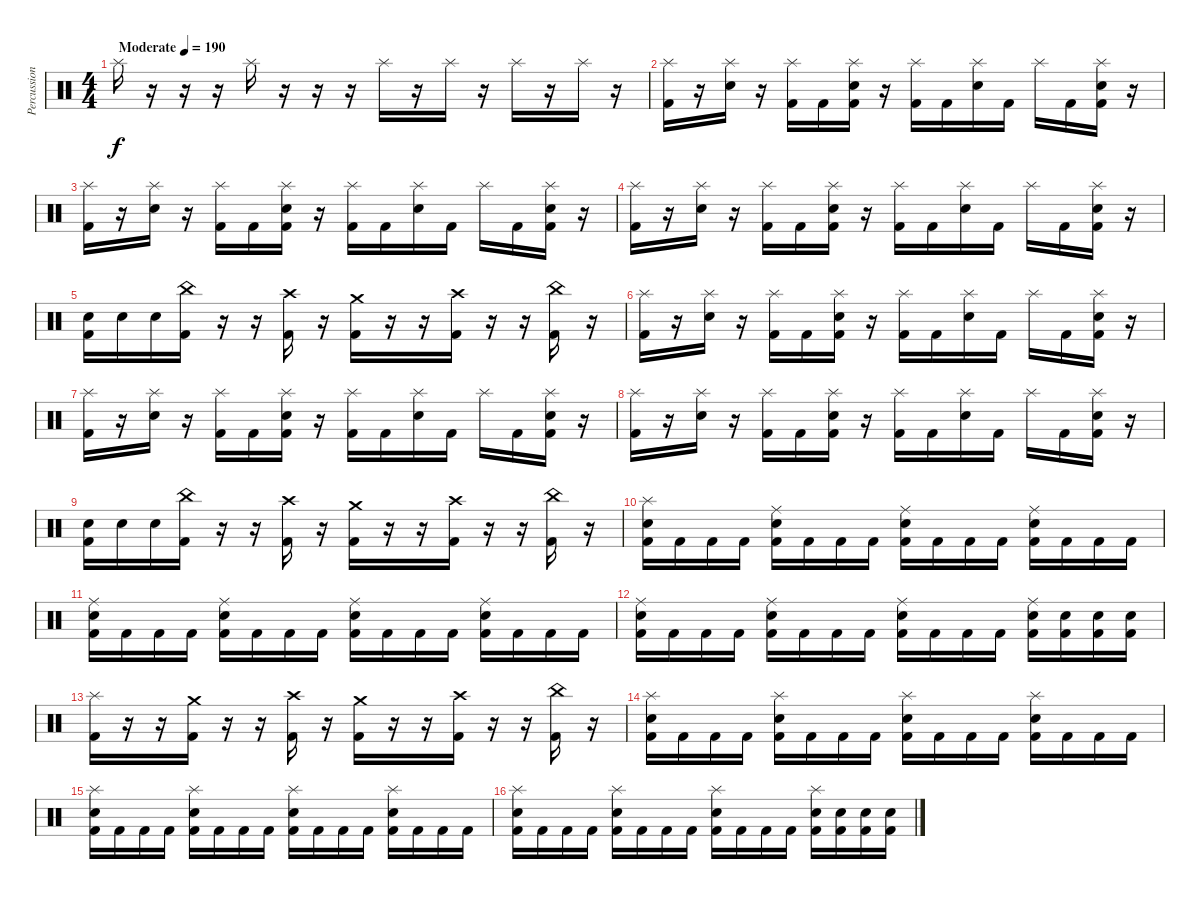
\track ("Percussion" "Percussion") {instrument percussion}
\staff {score}
\articulation defaults
\ts (4 4)
\tempo (190 "Moderate")
\clef neutral
\ks c "Splash (hit)".16{dy f}
r.16 r.16 r.16 "Splash (hit)".16 r.16 r.16 r.16 "Splash (hit)".16 r.16 "Splash (hit)".16 r.16 "Splash (hit)".16 r.16 "Splash (hit)".16 r.16 |
("Splash (hit)" "Kick (hit) 2").16 r.16 ("Splash (hit)" "Electric Snare (hit)").16 r.16 ("Splash (hit)" "Kick (hit) 2").16 "Kick (hit) 2".16 ("Splash (hit)" "Electric Snare (hit)" "Kick (hit) 2").16 r.16 ("Splash (hit)" "Kick (hit) 2").16 "Kick (hit) 2".16 ("Splash (hit)" "Electric Snare (hit)").16 "Kick (hit) 2".16 "Splash (hit)".16 "Kick (hit) 2".16 ("Splash (hit)" "Electric Snare (hit)" "Kick (hit) 2").16 r.16 |
("Splash (hit)" "Kick (hit) 2").16 r.16 ("Splash (hit)" "Electric Snare (hit)").16 r.16 ("Splash (hit)" "Kick (hit) 2").16 "Kick (hit) 2".16 ("Splash (hit)" "Electric Snare (hit)" "Kick (hit) 2").16 r.16 ("Splash (hit)" "Kick (hit) 2").16 "Kick (hit) 2".16 ("Splash (hit)" "Electric Snare (hit)").16 "Kick (hit) 2".16 "Splash (hit)".16 "Kick (hit) 2".16 ("Splash (hit)" "Electric Snare (hit)" "Kick (hit) 2").16 r.16 |
("Splash (hit)" "Kick (hit) 2").16 r.16 ("Splash (hit)" "Electric Snare (hit)").16 r.16 ("Splash (hit)" "Kick (hit) 2").16 "Kick (hit) 2".16 ("Splash (hit)" "Electric Snare (hit)" "Kick (hit) 2").16 r.16 ("Splash (hit)" "Kick (hit) 2").16 "Kick (hit) 2".16 ("Splash (hit)" "Electric Snare (hit)").16 "Kick (hit) 2".16 "Splash (hit)".16 "Kick (hit) 2".16 ("Splash (hit)" "Electric Snare (hit)" "Kick (hit) 2").16 r.16 |
("Electric Snare (hit)" "Kick (hit) 2").16 "Electric Snare (hit)".16 "Electric Snare (hit)".16 ("China (hit)" "Kick (hit) 2").16 r.16 r.16 ("Crash high (hit)" "Kick (hit) 2").16 r.16 ("Crash medium (hit)" "Kick (hit) 2").16 r.16 r.16 ("Crash high (hit)" "Kick (hit) 2").16 r.16 r.16 ("China (hit)" "Kick (hit) 2").16 r.16 |
("Splash (hit)" "Kick (hit) 2").16 r.16 ("Splash (hit)" "Electric Snare (hit)").16 r.16 ("Splash (hit)" "Kick (hit) 2").16 "Kick (hit) 2".16 ("Splash (hit)" "Electric Snare (hit)" "Kick (hit) 2").16 r.16 ("Splash (hit)" "Kick (hit) 2").16 "Kick (hit) 2".16 ("Splash (hit)" "Electric Snare (hit)").16 "Kick (hit) 2".16 "Splash (hit)".16 "Kick (hit) 2".16 ("Splash (hit)" "Electric Snare (hit)" "Kick (hit) 2").16 r.16 |
("Splash (hit)" "Kick (hit) 2").16 r.16 ("Splash (hit)" "Electric Snare (hit)").16 r.16 ("Splash (hit)" "Kick (hit) 2").16 "Kick (hit) 2".16 ("Splash (hit)" "Electric Snare (hit)" "Kick (hit) 2").16 r.16 ("Splash (hit)" "Kick (hit) 2").16 "Kick (hit) 2".16 ("Splash (hit)" "Electric Snare (hit)").16 "Kick (hit) 2".16 "Splash (hit)".16 "Kick (hit) 2".16 ("Splash (hit)" "Electric Snare (hit)" "Kick (hit) 2").16 r.16 |
("Splash (hit)" "Kick (hit) 2").16 r.16 ("Splash (hit)" "Electric Snare (hit)").16 r.16 ("Splash (hit)" "Kick (hit) 2").16 "Kick (hit) 2".16 ("Splash (hit)" "Electric Snare (hit)" "Kick (hit) 2").16 r.16 ("Splash (hit)" "Kick (hit) 2").16 "Kick (hit) 2".16 ("Splash (hit)" "Electric Snare (hit)").16 "Kick (hit) 2".16 "Splash (hit)".16 "Kick (hit) 2".16 ("Splash (hit)" "Electric Snare (hit)" "Kick (hit) 2").16 r.16 |
("Electric Snare (hit)" "Kick (hit) 2").16 "Electric Snare (hit)".16 "Electric Snare (hit)".16 ("China (hit)" "Kick (hit) 2").16 r.16 r.16 ("Crash high (hit)" "Kick (hit) 2").16 r.16 ("Crash medium (hit)" "Kick (hit) 2").16 r.16 r.16 ("Crash high (hit)" "Kick (hit) 2").16 r.16 r.16 ("China (hit)" "Kick (hit) 2").16 r.16 |
("Splash (hit)" "Electric Snare (hit)" "Kick (hit) 2").16 "Kick (hit) 2".16 "Kick (hit) 2".16 "Kick (hit) 2".16 ("Ride (middle)" "Electric Snare (hit)" "Kick (hit) 2").16 "Kick (hit) 2".16 "Kick (hit) 2".16 "Kick (hit) 2".16 ("Ride (middle)" "Electric Snare (hit)" "Kick (hit) 2").16 "Kick (hit) 2".16 "Kick (hit) 2".16 "Kick (hit) 2".16 ("Ride (middle)" "Electric Snare (hit)" "Kick (hit) 2").16 "Kick (hit) 2".16 "Kick (hit) 2".16 "Kick (hit) 2".16 |
("Ride (middle)" "Electric Snare (hit)" "Kick (hit) 2").16 "Kick (hit) 2".16 "Kick (hit) 2".16 "Kick (hit) 2".16 ("Ride (middle)" "Electric Snare (hit)" "Kick (hit) 2").16 "Kick (hit) 2".16 "Kick (hit) 2".16 "Kick (hit) 2".16 ("Ride (middle)" "Electric Snare (hit)" "Kick (hit) 2").16 "Kick (hit) 2".16 "Kick (hit) 2".16 "Kick (hit) 2".16 ("Ride (middle)" "Electric Snare (hit)" "Kick (hit) 2").16 "Kick (hit) 2".16 "Kick (hit) 2".16 "Kick (hit) 2".16 |
("Ride (middle)" "Electric Snare (hit)" "Kick (hit) 2").16 "Kick (hit) 2".16 "Kick (hit) 2".16 "Kick (hit) 2".16 ("Ride (middle)" "Electric Snare (hit)" "Kick (hit) 2").16 "Kick (hit) 2".16 "Kick (hit) 2".16 "Kick (hit) 2".16 ("Ride (middle)" "Electric Snare (hit)" "Kick (hit) 2").16 "Kick (hit) 2".16 "Kick (hit) 2".16 "Kick (hit) 2".16 ("Ride (middle)" "Electric Snare (hit)" "Kick (hit) 2").16 ("Electric Snare (hit)" "Kick (hit) 2").16 ("Electric Snare (hit)" "Kick (hit) 2").16 ("Electric Snare (hit)" "Kick (hit) 2").16 |
("Splash (hit)" "Kick (hit) 2").16 r.16 r.16 ("Crash medium (hit)" "Kick (hit) 2").16 r.16 r.16 ("Crash high (hit)" "Kick (hit) 2").16 r.16 ("Crash medium (hit)" "Kick (hit) 2").16 r.16 r.16 ("Crash high (hit)" "Kick (hit) 2").16 r.16 r.16 ("China (hit)" "Kick (hit) 2").16 r.16 |
("Splash (hit)" "Electric Snare (hit)" "Kick (hit) 2").16 "Kick (hit) 2".16 "Kick (hit) 2".16 "Kick (hit) 2".16 ("Splash (hit)" "Electric Snare (hit)" "Kick (hit) 2").16 "Kick (hit) 2".16 "Kick (hit) 2".16 "Kick (hit) 2".16 ("Splash (hit)" "Electric Snare (hit)" "Kick (hit) 2").16 "Kick (hit) 2".16 "Kick (hit) 2".16 "Kick (hit) 2".16 ("Splash (hit)" "Electric Snare (hit)" "Kick (hit) 2").16 "Kick (hit) 2".16 "Kick (hit) 2".16 "Kick (hit) 2".16 |
("Splash (hit)" "Electric Snare (hit)" "Kick (hit) 2").16 "Kick (hit) 2".16 "Kick (hit) 2".16 "Kick (hit) 2".16 ("Splash (hit)" "Electric Snare (hit)" "Kick (hit) 2").16 "Kick (hit) 2".16 "Kick (hit) 2".16 "Kick (hit) 2".16 ("Splash (hit)" "Electric Snare (hit)" "Kick (hit) 2").16 "Kick (hit) 2".16 "Kick (hit) 2".16 "Kick (hit) 2".16 ("Splash (hit)" "Electric Snare (hit)" "Kick (hit) 2").16 "Kick (hit) 2".16 "Kick (hit) 2".16 "Kick (hit) 2".16 |
("Splash (hit)" "Electric Snare (hit)" "Kick (hit) 2").16 "Kick (hit) 2".16 "Kick (hit) 2".16 "Kick (hit) 2".16 ("Splash (hit)" "Electric Snare (hit)" "Kick (hit) 2").16 "Kick (hit) 2".16 "Kick (hit) 2".16 "Kick (hit) 2".16 ("Splash (hit)" "Electric Snare (hit)" "Kick (hit) 2").16 "Kick (hit) 2".16 "Kick (hit) 2".16 "Kick (hit) 2".16 ("Splash (hit)" "Electric Snare (hit)" "Kick (hit) 2").16 ("Electric Snare (hit)" "Kick (hit) 2").16 ("Electric Snare (hit)" "Kick (hit) 2").16 ("Electric Snare (hit)" "Kick (hit) 2").16
